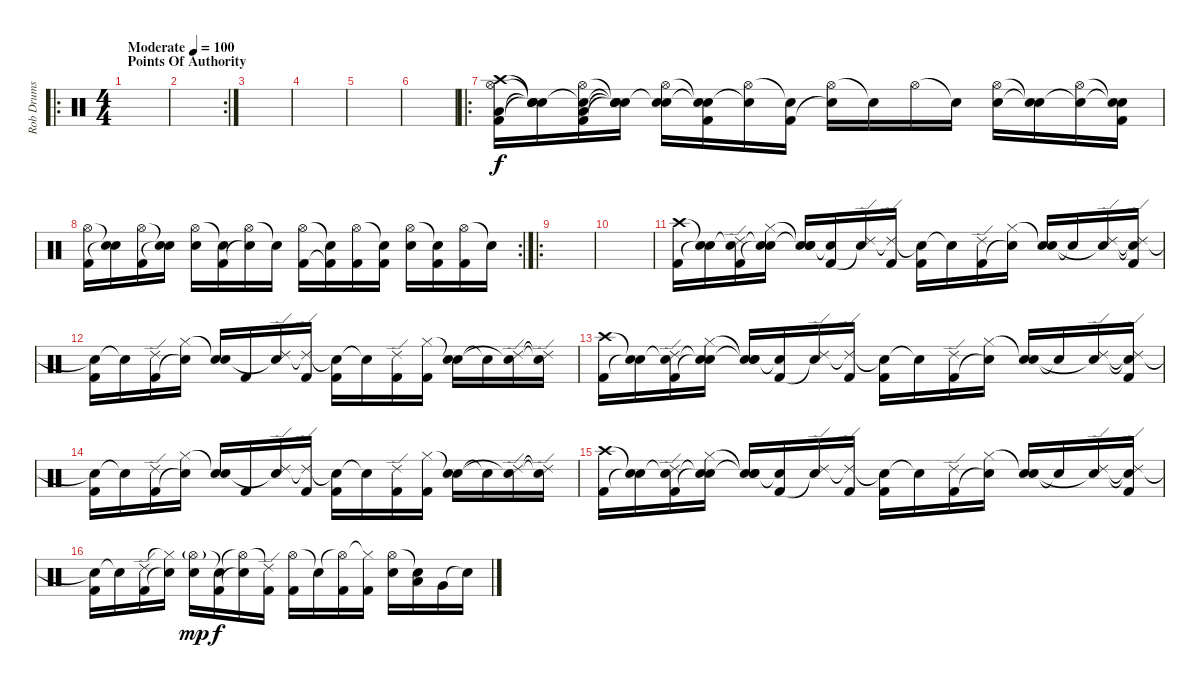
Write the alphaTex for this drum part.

\track ("Rob Drums" "Rob Drums") {instrument percussion}
\staff {score}
\articulation defaults
\ro
\ts (4 4)
\section ("" "Points Of Authority")
\tempo (100 "Moderate")
\clef neutral
\ks c
|
\rc 2
|
|
|
|
|
\ro
("Crash high (hit)" "Hi-Hat (open)" "Low Tom (hit)" "Kick (hit) 2").16 ("Snare (hit)"{t} "Snare (hit)"{t} "Snare (hit)"{t} "Snare (hit)"{t}).16 ("Snare (hit)"{t} "Hi-Hat (open)" "Low Tom (hit)" "Kick (hit) 2").16 ("Snare (hit)"{t} "Snare (hit)"{t} "Snare (hit)"{t} "Snare (hit)"{t}).16 ("Snare (hit)"{t} "Hi-Hat (open)" "Electric Snare (hit)").16 ("Snare (hit)"{t} "Snare (hit)"{t} "Kick (hit) 2").16 ("Hi-Hat (open)" "Snare (hit)"{t}).16 ("Snare (hit)"{t} "Kick (hit) 2").16 ("Hi-Hat (open)" "Snare (hit)"{t}).16 "Snare (hit)"{t}.16 "Hi-Hat (open)".16 "Snare (hit)"{t}.16 ("Hi-Hat (open)" "Electric Snare (hit)").16 ("Snare (hit)"{t} "Snare (hit)"{t}).16 ("Hi-Hat (open)" "Snare (hit)"{t}).16 ("Snare (hit)"{t} "Snare (hit)"{t} "Kick (hit) 2").16 |
\rc 2
("Hi-Hat (open)" "Kick (hit) 2").16 ("Snare (hit)"{t} "Snare (hit)"{t}).16 ("Hi-Hat (open)" "Kick (hit) 2").16 ("Snare (hit)"{t} "Snare (hit)"{t}).16 ("Hi-Hat (open)" "Electric Snare (hit)").16 ("Snare (hit)"{t} "Kick (hit) 2").16 ("Hi-Hat (open)" "Snare (hit)"{t}).16 "Snare (hit)"{t}.16 ("Hi-Hat (open)" "Kick (hit) 2").16 ("Snare (hit)"{t} "Kick (hit) 2"{t}).16 ("Hi-Hat (open)" "Kick (hit) 2").16 ("Snare (hit)"{t} "Kick (hit) 2").16 ("Hi-Hat (open)" "Electric Snare (hit)").16 ("Snare (hit)"{t} "Kick (hit) 2").16 ("Hi-Hat (open)" "Kick (hit) 2").16 "Snare (hit)"{t}.16 |
\ro
|
|
("Crash high (hit)" "Kick (hit) 2").16 ("Snare (hit)"{t} "Snare (hit)"{t}).16 ("Snare (hit)"{t} "Ride (edge) 2" "Kick (hit) 2").16 ("Snare (hit)"{t} "Hi-Hat (closed)" "Snare (hit)"{t}).16 ("Snare (hit)"{t} "Snare (hit)"{t} "Electric Snare (hit)").16 ("Snare (hit)"{t} "Kick (hit) 2").16 ("Ride (edge) 2" "Snare (hit)"{t}).16 ("Ride (edge) 2"{t} "Kick (hit) 2").16 ("Snare (hit)"{t} "Kick (hit) 2").16 "Snare (hit)"{t}.16 ("Ride (edge) 2" "Kick (hit) 2").16 ("Hi-Hat (closed)" "Snare (hit)"{t}).16 ("Snare (hit)"{t} "Electric Snare (hit)").16 "Snare (hit)"{t}.16 ("Ride (edge) 2" "Snare (hit)"{t}).16 ("Ride (edge) 2"{t} "Snare (hit)"{t} "Kick (hit) 2").16 |
("Snare (hit)"{t} "Kick (hit) 2").16 "Snare (hit)"{t}.16 ("Ride (edge) 2" "Kick (hit) 2").16 ("Hi-Hat (closed)" "Snare (hit)"{t}).16 ("Snare (hit)"{t} "Electric Snare (hit)").16 "Kick (hit) 2".16 ("Ride (edge) 2" "Snare (hit)"{t}).16 ("Ride (edge) 2"{t} "Kick (hit) 2").16 ("Snare (hit)"{t} "Kick (hit) 2").16 "Snare (hit)"{t}.16 ("Ride (edge) 2" "Kick (hit) 2").16 ("Hi-Hat (closed)" "Kick (hit) 2").16 ("Snare (hit)"{t} "Electric Snare (hit)").16 "Snare (hit)"{t}.16 ("Ride (edge) 2" "Snare (hit)"{t}).16 ("Ride (edge) 2"{t} "Snare (hit)"{t}).16 |
("Crash high (hit)" "Kick (hit) 2").16 ("Snare (hit)"{t} "Snare (hit)"{t}).16 ("Snare (hit)"{t} "Ride (edge) 2" "Kick (hit) 2").16 ("Snare (hit)"{t} "Hi-Hat (closed)" "Snare (hit)"{t}).16 ("Snare (hit)"{t} "Snare (hit)"{t} "Electric Snare (hit)").16 ("Snare (hit)"{t} "Kick (hit) 2").16 ("Ride (edge) 2" "Snare (hit)"{t}).16 ("Ride (edge) 2"{t} "Kick (hit) 2").16 ("Snare (hit)"{t} "Kick (hit) 2").16 "Snare (hit)"{t}.16 ("Ride (edge) 2" "Kick (hit) 2").16 ("Hi-Hat (closed)" "Snare (hit)"{t}).16 ("Snare (hit)"{t} "Electric Snare (hit)").16 "Snare (hit)"{t}.16 ("Ride (edge) 2" "Snare (hit)"{t}).16 ("Ride (edge) 2"{t} "Snare (hit)"{t} "Kick (hit) 2").16 |
("Snare (hit)"{t} "Kick (hit) 2").16 "Snare (hit)"{t}.16 ("Ride (edge) 2" "Kick (hit) 2").16 ("Hi-Hat (closed)" "Snare (hit)"{t}).16 ("Snare (hit)"{t} "Electric Snare (hit)").16 "Kick (hit) 2".16 ("Ride (edge) 2" "Snare (hit)"{t}).16 ("Ride (edge) 2"{t} "Kick (hit) 2").16 ("Snare (hit)"{t} "Kick (hit) 2").16 "Snare (hit)"{t}.16 ("Ride (edge) 2" "Kick (hit) 2").16 ("Hi-Hat (closed)" "Kick (hit) 2").16 ("Snare (hit)"{t} "Electric Snare (hit)").16 "Snare (hit)"{t}.16 ("Ride (edge) 2" "Snare (hit)"{t}).16 ("Ride (edge) 2"{t} "Snare (hit)"{t}).16 |
("Crash high (hit)" "Kick (hit) 2").16 ("Snare (hit)"{t} "Snare (hit)"{t}).16 ("Snare (hit)"{t} "Ride (edge) 2" "Kick (hit) 2").16 ("Snare (hit)"{t} "Hi-Hat (closed)" "Snare (hit)"{t}).16 ("Snare (hit)"{t} "Snare (hit)"{t} "Electric Snare (hit)").16 ("Snare (hit)"{t} "Kick (hit) 2").16 ("Ride (edge) 2" "Snare (hit)"{t}).16 ("Ride (edge) 2"{t} "Kick (hit) 2").16 ("Snare (hit)"{t} "Kick (hit) 2").16 "Snare (hit)"{t}.16 ("Ride (edge) 2" "Kick (hit) 2").16 ("Hi-Hat (closed)" "Snare (hit)"{t}).16 ("Snare (hit)"{t} "Electric Snare (hit)").16 "Snare (hit)"{t}.16 ("Ride (edge) 2" "Snare (hit)"{t}).16 ("Ride (edge) 2"{t} "Snare (hit)"{t} "Kick (hit) 2").16 |
("Snare (hit)"{t} "Kick (hit) 2").16 "Snare (hit)"{t}.16 ("Ride (edge) 2" "Kick (hit) 2").16 ("Hi-Hat (closed)"{t} "Snare (hit)"{t}).16 ("Hi-Hat (open)"{g} "Electric Snare (hit)").16{dy mp} ("Snare (hit)"{t} "Kick (hit) 2").16{dy f} ("Hi-Hat (open)"{t} "Snare (hit)"{t}).16 ("Ride (edge) 2"{t} "Kick (hit) 2").16 ("Hi-Hat (open)" "Kick (hit) 2").16 "Snare (hit)"{t}.16 ("Hi-Hat (open)"{t} "Kick (hit) 2").16 ("Hi-Hat (closed)"{t} "Kick (hit) 2").16 ("Hi-Hat (open)" "Electric Snare (hit)").16 ("Snare (hit)"{t} "Low Tom (hit)").16 "Very Low Tom (hit)".16 "Snare (hit)"{t}.16
